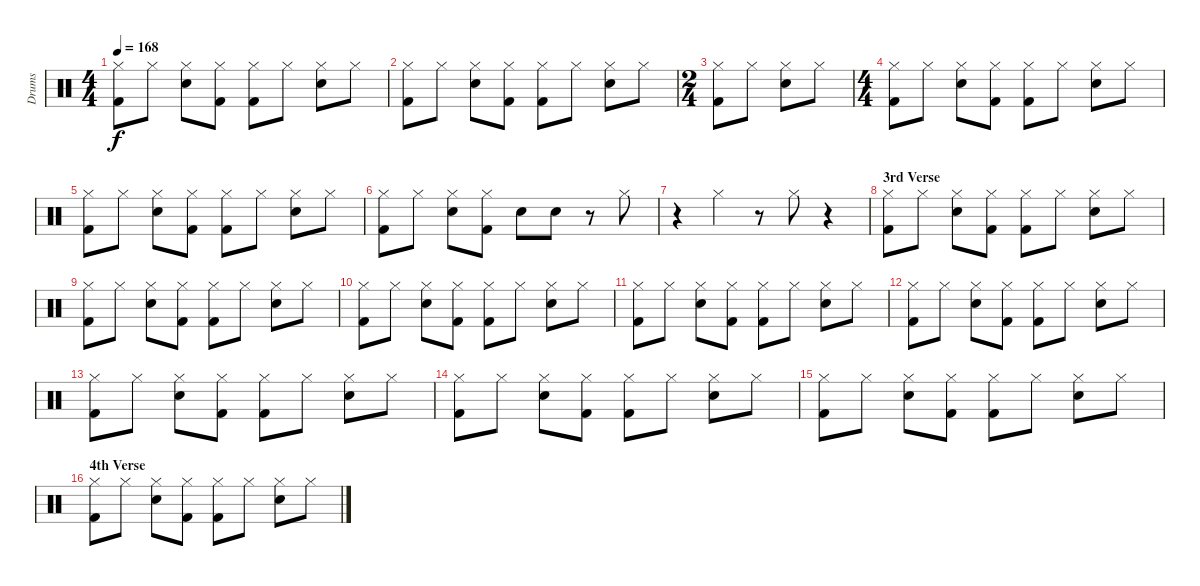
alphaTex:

\track ("Drums" "Drums") {instrument percussion}
\staff {score}
\articulation defaults
\ts (4 4)
\tempo 168
\clef neutral
\ks c
("Kick (hit) 2" "Hi-Hat (closed)").8{dy f} "Hi-Hat (closed)".8 ("Snare (hit) 2" "Hi-Hat (closed)").8 ("Kick (hit) 2" "Hi-Hat (closed)").8 ("Kick (hit) 2" "Hi-Hat (closed)").8 "Hi-Hat (closed)".8 ("Snare (hit) 2" "Hi-Hat (closed)").8 "Hi-Hat (closed)".8 |
("Kick (hit) 2" "Hi-Hat (closed)").8 "Hi-Hat (closed)".8 ("Snare (hit) 2" "Hi-Hat (closed)").8 ("Kick (hit) 2" "Hi-Hat (closed)").8 ("Kick (hit) 2" "Hi-Hat (closed)").8 "Hi-Hat (closed)".8 ("Snare (hit) 2" "Hi-Hat (closed)").8 "Hi-Hat (closed)".8 |
\ts (2 4)
("Kick (hit) 2" "Hi-Hat (closed)").8 "Hi-Hat (closed)".8 ("Snare (hit) 2" "Hi-Hat (closed)").8 "Hi-Hat (closed)".8 |
\ts (4 4)
("Kick (hit) 2" "Hi-Hat (closed)").8 "Hi-Hat (closed)".8 ("Snare (hit) 2" "Hi-Hat (closed)").8 ("Kick (hit) 2" "Hi-Hat (closed)").8 ("Kick (hit) 2" "Hi-Hat (closed)").8 "Hi-Hat (closed)".8 ("Snare (hit) 2" "Hi-Hat (closed)").8 "Hi-Hat (closed)".8 |
("Kick (hit) 2" "Hi-Hat (closed)").8 "Hi-Hat (closed)".8 ("Snare (hit) 2" "Hi-Hat (closed)").8 ("Kick (hit) 2" "Hi-Hat (closed)").8 ("Kick (hit) 2" "Hi-Hat (closed)").8 "Hi-Hat (closed)".8 ("Snare (hit) 2" "Hi-Hat (closed)").8 "Hi-Hat (closed)".8 |
("Kick (hit) 2" "Hi-Hat (closed)").8 "Hi-Hat (closed)".8 ("Snare (hit) 2" "Hi-Hat (closed)").8 ("Kick (hit) 2" "Hi-Hat (closed)").8 "Snare (hit) 2".8 "Snare (hit) 2".8 r.8 "Hi-Hat (closed)".8 |
r.4 "Hi-Hat (closed)".4 r.8 "Hi-Hat (closed)".8 r.4 |
\section ("" "3rd Verse")
("Kick (hit) 2" "Hi-Hat (closed)").8 "Hi-Hat (closed)".8 ("Snare (hit) 2" "Hi-Hat (closed)").8 ("Kick (hit) 2" "Hi-Hat (closed)").8 ("Kick (hit) 2" "Hi-Hat (closed)").8 "Hi-Hat (closed)".8 ("Snare (hit) 2" "Hi-Hat (closed)").8 "Hi-Hat (closed)".8 |
("Kick (hit) 2" "Hi-Hat (closed)").8 "Hi-Hat (closed)".8 ("Snare (hit) 2" "Hi-Hat (closed)").8 ("Kick (hit) 2" "Hi-Hat (closed)").8 ("Kick (hit) 2" "Hi-Hat (closed)").8 "Hi-Hat (closed)".8 ("Snare (hit) 2" "Hi-Hat (closed)").8 "Hi-Hat (closed)".8 |
("Kick (hit) 2" "Hi-Hat (closed)").8 "Hi-Hat (closed)".8 ("Snare (hit) 2" "Hi-Hat (closed)").8 ("Kick (hit) 2" "Hi-Hat (closed)").8 ("Kick (hit) 2" "Hi-Hat (closed)").8 "Hi-Hat (closed)".8 ("Snare (hit) 2" "Hi-Hat (closed)").8 "Hi-Hat (closed)".8 |
("Kick (hit) 2" "Hi-Hat (closed)").8 "Hi-Hat (closed)".8 ("Snare (hit) 2" "Hi-Hat (closed)").8 ("Kick (hit) 2" "Hi-Hat (closed)").8 ("Kick (hit) 2" "Hi-Hat (closed)").8 "Hi-Hat (closed)".8 ("Snare (hit) 2" "Hi-Hat (closed)").8 "Hi-Hat (closed)".8 |
("Kick (hit) 2" "Hi-Hat (closed)").8 "Hi-Hat (closed)".8 ("Snare (hit) 2" "Hi-Hat (closed)").8 ("Kick (hit) 2" "Hi-Hat (closed)").8 ("Kick (hit) 2" "Hi-Hat (closed)").8 "Hi-Hat (closed)".8 ("Snare (hit) 2" "Hi-Hat (closed)").8 "Hi-Hat (closed)".8 |
("Kick (hit) 2" "Hi-Hat (closed)").8 "Hi-Hat (closed)".8 ("Snare (hit) 2" "Hi-Hat (closed)").8 ("Kick (hit) 2" "Hi-Hat (closed)").8 ("Kick (hit) 2" "Hi-Hat (closed)").8 "Hi-Hat (closed)".8 ("Snare (hit) 2" "Hi-Hat (closed)").8 "Hi-Hat (closed)".8 |
("Kick (hit) 2" "Hi-Hat (closed)").8 "Hi-Hat (closed)".8 ("Snare (hit) 2" "Hi-Hat (closed)").8 ("Kick (hit) 2" "Hi-Hat (closed)").8 ("Kick (hit) 2" "Hi-Hat (closed)").8 "Hi-Hat (closed)".8 ("Snare (hit) 2" "Hi-Hat (closed)").8 "Hi-Hat (closed)".8 |
("Kick (hit) 2" "Hi-Hat (closed)").8 "Hi-Hat (closed)".8 ("Snare (hit) 2" "Hi-Hat (closed)").8 ("Kick (hit) 2" "Hi-Hat (closed)").8 ("Kick (hit) 2" "Hi-Hat (closed)").8 "Hi-Hat (closed)".8 ("Snare (hit) 2" "Hi-Hat (closed)").8 "Hi-Hat (closed)".8 |
\section ("" "4th Verse")
("Kick (hit) 2" "Hi-Hat (closed)").8 "Hi-Hat (closed)".8 ("Snare (hit) 2" "Hi-Hat (closed)").8 ("Kick (hit) 2" "Hi-Hat (closed)").8 ("Kick (hit) 2" "Hi-Hat (closed)").8 "Hi-Hat (closed)".8 ("Snare (hit) 2" "Hi-Hat (closed)").8 "Hi-Hat (closed)".8
